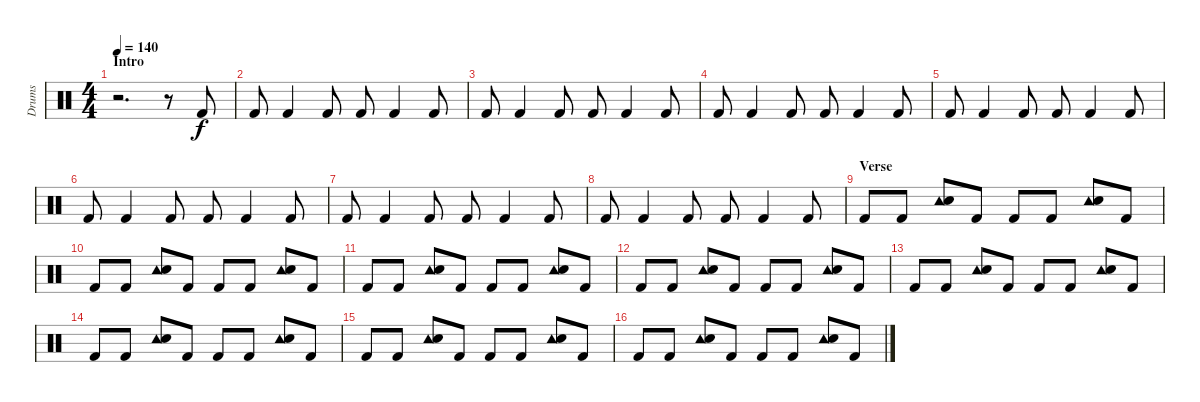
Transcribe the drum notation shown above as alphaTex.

\track ("Drums" "Drums") {instrument percussion}
\staff {score}
\articulation defaults
\ts (4 4)
\section ("" "Intro")
\tempo 140
\clef neutral
\ks c
r.2{d dy f} r.8 "Kick (hit) 2".8 |
"Kick (hit) 2".8 "Kick (hit) 2".4 "Kick (hit) 2".8 "Kick (hit) 2".8 "Kick (hit) 2".4 "Kick (hit) 2".8 |
"Kick (hit) 2".8 "Kick (hit) 2".4 "Kick (hit) 2".8 "Kick (hit) 2".8 "Kick (hit) 2".4 "Kick (hit) 2".8 |
"Kick (hit) 2".8 "Kick (hit) 2".4 "Kick (hit) 2".8 "Kick (hit) 2".8 "Kick (hit) 2".4 "Kick (hit) 2".8 |
"Kick (hit) 2".8 "Kick (hit) 2".4 "Kick (hit) 2".8 "Kick (hit) 2".8 "Kick (hit) 2".4 "Kick (hit) 2".8 |
"Kick (hit) 2".8 "Kick (hit) 2".4 "Kick (hit) 2".8 "Kick (hit) 2".8 "Kick (hit) 2".4 "Kick (hit) 2".8 |
"Kick (hit) 2".8 "Kick (hit) 2".4 "Kick (hit) 2".8 "Kick (hit) 2".8 "Kick (hit) 2".4 "Kick (hit) 2".8 |
"Kick (hit) 2".8 "Kick (hit) 2".4 "Kick (hit) 2".8 "Kick (hit) 2".8 "Kick (hit) 2".4 "Kick (hit) 2".8 |
\section ("" "Verse")
"Kick (hit) 2".8 "Kick (hit) 2".8 ("Tambourine (hit)" "Electric Snare (hit)").8 "Kick (hit) 2".8 "Kick (hit) 2".8 "Kick (hit) 2".8 ("Tambourine (hit)" "Electric Snare (hit)").8 "Kick (hit) 2".8 |
"Kick (hit) 2".8 "Kick (hit) 2".8 ("Tambourine (hit)" "Electric Snare (hit)").8 "Kick (hit) 2".8 "Kick (hit) 2".8 "Kick (hit) 2".8 ("Tambourine (hit)" "Electric Snare (hit)").8 "Kick (hit) 2".8 |
"Kick (hit) 2".8 "Kick (hit) 2".8 ("Tambourine (hit)" "Electric Snare (hit)").8 "Kick (hit) 2".8 "Kick (hit) 2".8 "Kick (hit) 2".8 ("Tambourine (hit)" "Electric Snare (hit)").8 "Kick (hit) 2".8 |
"Kick (hit) 2".8 "Kick (hit) 2".8 ("Tambourine (hit)" "Electric Snare (hit)").8 "Kick (hit) 2".8 "Kick (hit) 2".8 "Kick (hit) 2".8 ("Tambourine (hit)" "Electric Snare (hit)").8 "Kick (hit) 2".8 |
"Kick (hit) 2".8 "Kick (hit) 2".8 ("Tambourine (hit)" "Electric Snare (hit)").8 "Kick (hit) 2".8 "Kick (hit) 2".8 "Kick (hit) 2".8 ("Tambourine (hit)" "Electric Snare (hit)").8 "Kick (hit) 2".8 |
"Kick (hit) 2".8 "Kick (hit) 2".8 ("Tambourine (hit)" "Electric Snare (hit)").8 "Kick (hit) 2".8 "Kick (hit) 2".8 "Kick (hit) 2".8 ("Tambourine (hit)" "Electric Snare (hit)").8 "Kick (hit) 2".8 |
"Kick (hit) 2".8 "Kick (hit) 2".8 ("Tambourine (hit)" "Electric Snare (hit)").8 "Kick (hit) 2".8 "Kick (hit) 2".8 "Kick (hit) 2".8 ("Tambourine (hit)" "Electric Snare (hit)").8 "Kick (hit) 2".8 |
"Kick (hit) 2".8 "Kick (hit) 2".8 ("Tambourine (hit)" "Electric Snare (hit)").8 "Kick (hit) 2".8 "Kick (hit) 2".8 "Kick (hit) 2".8 ("Tambourine (hit)" "Electric Snare (hit)").8 "Kick (hit) 2".8
